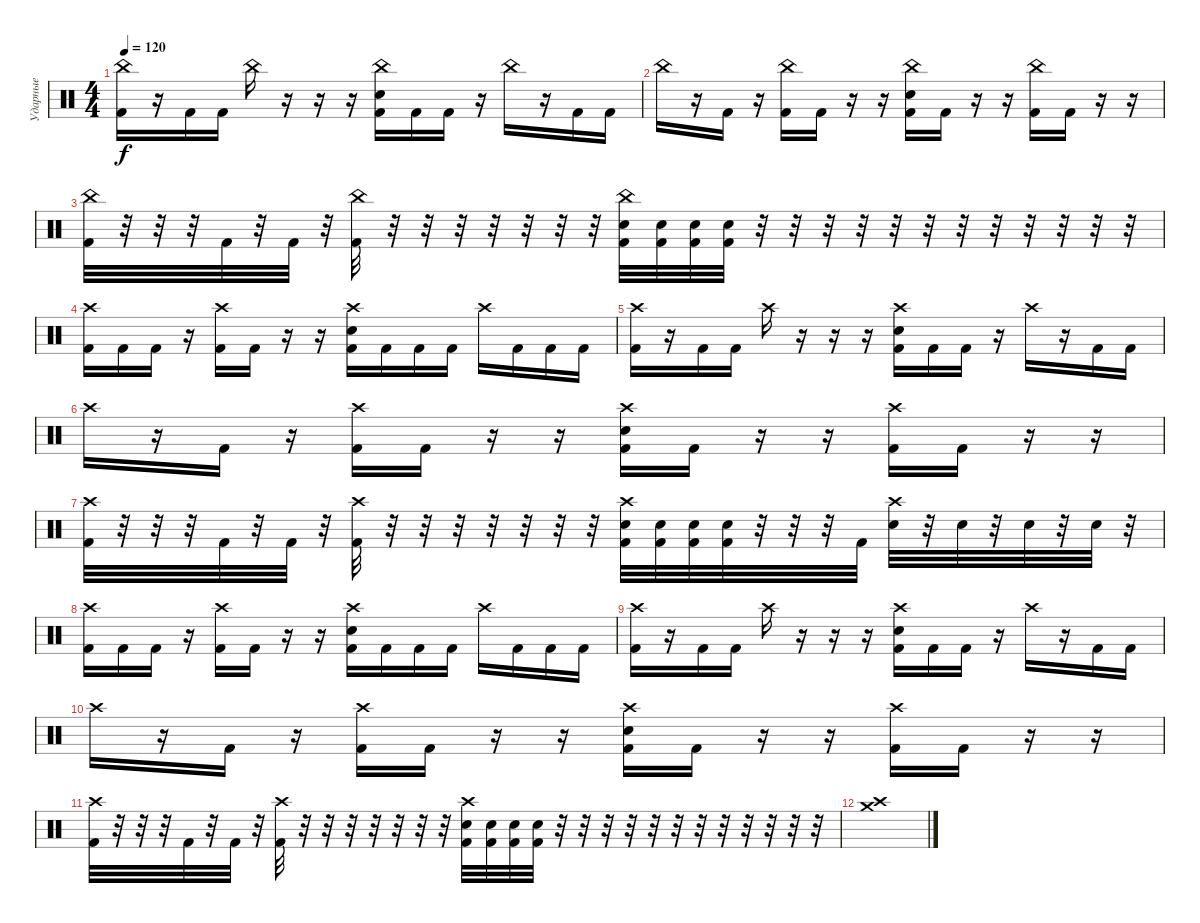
\track ("Ударные" "Ударные") {instrument percussion}
\staff {score}
\articulation defaults
\ts (4 4)
\tempo 120
\clef neutral
\ks c
("China (hit)" "Kick (hit) 2").16{dy f} r.16 "Kick (hit) 2".16 "Kick (hit) 2".16 "China (hit)".16 r.16 r.16 r.16 ("China (hit)" "Electric Snare (hit)" "Kick (hit) 2").16 "Kick (hit) 2".16 "Kick (hit) 2".16 r.16 "China (hit)".16 r.16 "Kick (hit) 2".16 "Kick (hit) 2".16 |
"China (hit)".16 r.16 "Kick (hit) 2".16 r.16 ("China (hit)" "Kick (hit) 2").16 "Kick (hit) 2".16 r.16 r.16 ("China (hit)" "Electric Snare (hit)" "Kick (hit) 2").16 "Kick (hit) 2".16 r.16 r.16 ("China (hit)" "Kick (hit) 2").16 "Kick (hit) 2".16 r.16 r.16 |
("China (hit)" "Kick (hit) 2").32 r.32 r.32 r.32 "Kick (hit) 2".32 r.32 "Kick (hit) 2".32 r.32 ("China (hit)" "Kick (hit) 2").32 r.32 r.32 r.32 r.32 r.32 r.32 r.32 ("China (hit)" "Electric Snare (hit)" "Kick (hit) 2").32 ("Electric Snare (hit)" "Kick (hit) 2").32 ("Electric Snare (hit)" "Kick (hit) 2").32 ("Electric Snare (hit)" "Kick (hit) 2").32 r.32 r.32 r.32 r.32 r.32 r.32 r.32 r.32 r.32 r.32 r.32 r.32 |
("Crash high (hit)" "Kick (hit) 2").16 "Kick (hit) 2".16 "Kick (hit) 2".16 r.16 ("Crash high (hit)" "Kick (hit) 2").16 "Kick (hit) 2".16 r.16 r.16 ("Crash high (hit)" "Electric Snare (hit)" "Kick (hit) 2").16 "Kick (hit) 2".16 "Kick (hit) 2".16 "Kick (hit) 2".16 "Crash high (hit)".16 "Kick (hit) 2".16 "Kick (hit) 2".16 "Kick (hit) 2".16 |
("Crash high (hit)" "Kick (hit) 2").16 r.16 "Kick (hit) 2".16 "Kick (hit) 2".16 "Crash high (hit)".16 r.16 r.16 r.16 ("Crash high (hit)" "Electric Snare (hit)" "Kick (hit) 2").16 "Kick (hit) 2".16 "Kick (hit) 2".16 r.16 "Crash high (hit)".16 r.16 "Kick (hit) 2".16 "Kick (hit) 2".16 |
"Crash high (hit)".16 r.16 "Kick (hit) 2".16 r.16 ("Crash high (hit)" "Kick (hit) 2").16 "Kick (hit) 2".16 r.16 r.16 ("Crash high (hit)" "Electric Snare (hit)" "Kick (hit) 2").16 "Kick (hit) 2".16 r.16 r.16 ("Crash high (hit)" "Kick (hit) 2").16 "Kick (hit) 2".16 r.16 r.16 |
("Crash high (hit)" "Kick (hit) 2").32 r.32 r.32 r.32 "Kick (hit) 2".32 r.32 "Kick (hit) 2".32 r.32 ("Crash high (hit)" "Kick (hit) 2").32 r.32 r.32 r.32 r.32 r.32 r.32 r.32 ("Crash high (hit)" "Electric Snare (hit)" "Kick (hit) 2").32 ("Electric Snare (hit)" "Kick (hit) 2").32 ("Electric Snare (hit)" "Kick (hit) 2").32 ("Electric Snare (hit)" "Kick (hit) 2").32 r.32 r.32 r.32 "Kick (hit) 2".32 ("Crash high (hit)" "Electric Snare (hit)").32 r.32 "Electric Snare (hit)".32 r.32 "Electric Snare (hit)".32 r.32 "Electric Snare (hit)".32 r.32 |
("Crash high (hit)" "Kick (hit) 2").16 "Kick (hit) 2".16 "Kick (hit) 2".16 r.16 ("Crash high (hit)" "Kick (hit) 2").16 "Kick (hit) 2".16 r.16 r.16 ("Crash high (hit)" "Electric Snare (hit)" "Kick (hit) 2").16 "Kick (hit) 2".16 "Kick (hit) 2".16 "Kick (hit) 2".16 "Crash high (hit)".16 "Kick (hit) 2".16 "Kick (hit) 2".16 "Kick (hit) 2".16 |
("Crash high (hit)" "Kick (hit) 2").16 r.16 "Kick (hit) 2".16 "Kick (hit) 2".16 "Crash high (hit)".16 r.16 r.16 r.16 ("Crash high (hit)" "Electric Snare (hit)" "Kick (hit) 2").16 "Kick (hit) 2".16 "Kick (hit) 2".16 r.16 "Crash high (hit)".16 r.16 "Kick (hit) 2".16 "Kick (hit) 2".16 |
"Crash high (hit)".16 r.16 "Kick (hit) 2".16 r.16 ("Crash high (hit)" "Kick (hit) 2").16 "Kick (hit) 2".16 r.16 r.16 ("Crash high (hit)" "Electric Snare (hit)" "Kick (hit) 2").16 "Kick (hit) 2".16 r.16 r.16 ("Crash high (hit)" "Kick (hit) 2").16 "Kick (hit) 2".16 r.16 r.16 |
("Crash high (hit)" "Kick (hit) 2").32 r.32 r.32 r.32 "Kick (hit) 2".32 r.32 "Kick (hit) 2".32 r.32 ("Crash high (hit)" "Kick (hit) 2").32 r.32 r.32 r.32 r.32 r.32 r.32 r.32 ("Crash high (hit)" "Electric Snare (hit)" "Kick (hit) 2").32 ("Electric Snare (hit)" "Kick (hit) 2").32 ("Electric Snare (hit)" "Kick (hit) 2").32 ("Electric Snare (hit)" "Kick (hit) 2").32 r.32 r.32 r.32 r.32 r.32 r.32 r.32 r.32 r.32 r.32 r.32 r.32 |
("Crash medium (hit)" "Crash high (hit)").1
